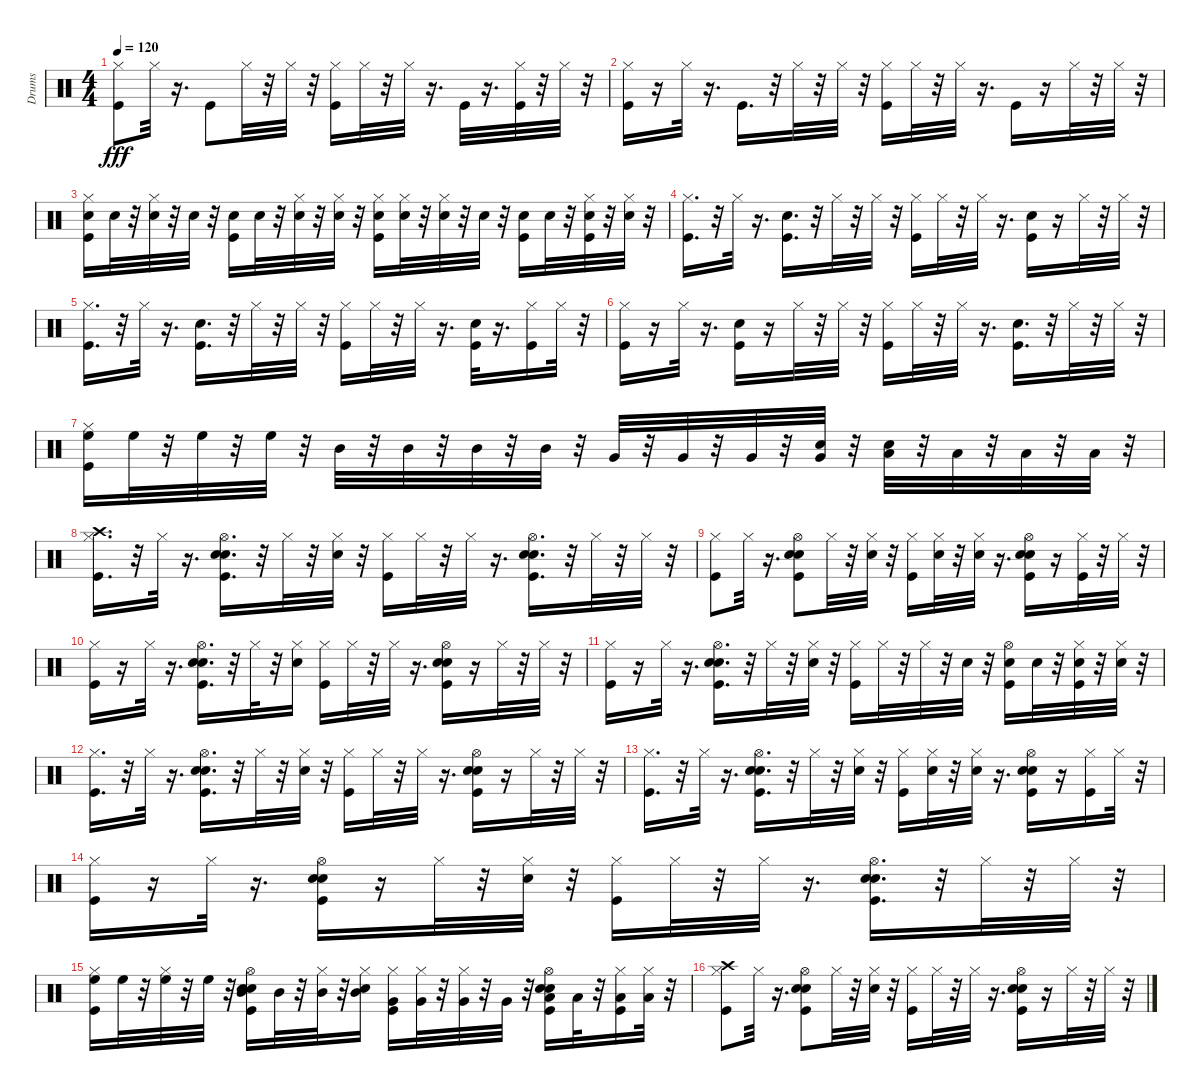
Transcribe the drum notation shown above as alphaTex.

\track ("Drums" "Drums") {instrument percussion}
\staff {score}
\articulation defaults
\ts (4 4)
\tempo 120
\clef neutral
\ks c
("Hi-Hat (closed)" "Kick (hit)").8{dy fff} "Hi-Hat (closed)".32 r.16{d} "Kick (hit)".8 "Hi-Hat (closed)".32 r.32 "Hi-Hat (closed)".32 r.32 ("Hi-Hat (closed)" "Kick (hit)").16 "Hi-Hat (closed)".32 r.32 "Hi-Hat (closed)".32 r.16{d} "Kick (hit)".32 r.16{d} ("Hi-Hat (closed)" "Kick (hit)").32 r.32 "Hi-Hat (closed)".32 r.32 |
("Hi-Hat (closed)" "Kick (hit)").16 r.16 "Hi-Hat (closed)".32 r.16{d} "Kick (hit)".16{d} r.32 "Hi-Hat (closed)".32 r.32 "Hi-Hat (closed)".32 r.32 ("Hi-Hat (closed)" "Kick (hit)").16 "Hi-Hat (closed)".32 r.32 "Hi-Hat (closed)".32 r.16{d} "Kick (hit)".16 r.16 "Hi-Hat (closed)".32 r.32 "Hi-Hat (closed)".32 r.32 |
("Hi-Hat (closed)" "Kick (hit)" "Electric Snare (hit)").16 "Electric Snare (hit)".32 r.32 ("Hi-Hat (closed)" "Electric Snare (hit)").32 r.32 "Electric Snare (hit)".32 r.32 ("Kick (hit)" "Electric Snare (hit)").16 "Electric Snare (hit)".32 r.32 ("Hi-Hat (closed)" "Electric Snare (hit)").32 r.32 ("Hi-Hat (closed)" "Electric Snare (hit)").32 r.32 ("Hi-Hat (closed)" "Kick (hit)" "Electric Snare (hit)").16 ("Hi-Hat (closed)" "Electric Snare (hit)").32 r.32 ("Hi-Hat (closed)" "Electric Snare (hit)").32 r.32 "Electric Snare (hit)".32 r.32 ("Kick (hit)" "Electric Snare (hit)").16 "Electric Snare (hit)".32 r.32 ("Hi-Hat (closed)" "Kick (hit)" "Electric Snare (hit)").32 r.32 ("Hi-Hat (closed)" "Electric Snare (hit)").32 r.32 |
("Hi-Hat (closed)" "Kick (hit)").16{d} r.32 "Hi-Hat (closed)".32 r.16{d} ("Kick (hit)" "Hand Clap (hit)").16{d} r.32 "Hi-Hat (closed)".32 r.32 "Hi-Hat (closed)".32 r.32 ("Hi-Hat (closed)" "Kick (hit)").16 "Hi-Hat (closed)".32 r.32 "Hi-Hat (closed)".32 r.16{d} ("Kick (hit)" "Hand Clap (hit)").16 r.16 "Hi-Hat (closed)".32 r.32 "Hi-Hat (closed)".32 r.32 |
("Hi-Hat (closed)" "Kick (hit)").16{d} r.32 "Hi-Hat (closed)".32 r.16{d} ("Kick (hit)" "Hand Clap (hit)").16{d} r.32 "Hi-Hat (closed)".32 r.32 "Hi-Hat (closed)".32 r.32 ("Hi-Hat (closed)" "Kick (hit)").16 "Hi-Hat (closed)".32 r.32 "Hi-Hat (closed)".32 r.16{d} ("Kick (hit)" "Hand Clap (hit)").32 r.16{d} ("Hi-Hat (closed)" "Kick (hit)").16 "Hi-Hat (closed)".32 r.32 |
("Hi-Hat (closed)" "Kick (hit)").16 r.16 "Hi-Hat (closed)".32 r.16{d} ("Kick (hit)" "Hand Clap (hit)").16 r.16 "Hi-Hat (closed)".32 r.32 "Hi-Hat (closed)".32 r.32 ("Hi-Hat (closed)" "Kick (hit)").16 "Hi-Hat (closed)".32 r.32 "Hi-Hat (closed)".32 r.16{d} ("Kick (hit)" "Hand Clap (hit)").16{d} r.32 "Hi-Hat (closed)".32 r.32 "Hi-Hat (closed)".32 r.32 |
("Hi-Hat (closed)" "Kick (hit)" "High Floor Tom (hit)").16 "High Floor Tom (hit)".32 r.32 "High Floor Tom (hit)".32 r.32 "High Floor Tom (hit)".32 r.32 "Mid Tom (hit)".32 r.32 "Mid Tom (hit)".32 r.32 "Mid Tom (hit)".32 r.32 "Mid Tom (hit)".32 r.32 "Very Low Tom (hit)".32 r.32 "Very Low Tom (hit)".32 r.32 "Very Low Tom (hit)".32 r.32 ("Very Low Tom (hit)" "Electric Snare (hit)").32 r.32 ("Low Floor Tom (hit)" "Electric Snare (hit)").32 r.32 "Low Floor Tom (hit)".32 r.32 "Low Floor Tom (hit)".32 r.32 "Low Floor Tom (hit)".32 r.32 |
("Hi-Hat (closed)" "Kick (hit)" "Crash high (hit)").16{d} r.32 "Hi-Hat (closed)".32 r.16{d} ("Hi-Hat (open)" "Kick (hit)" "Hand Clap (hit)" "Electric Snare (hit)").16{d} r.32 "Hi-Hat (closed)".32 r.32 ("Hi-Hat (closed)" "Electric Snare (hit)").32 r.32 ("Hi-Hat (closed)" "Kick (hit)").16 "Hi-Hat (closed)".32 r.32 "Hi-Hat (closed)".32 r.16{d} ("Hi-Hat (open)" "Kick (hit)" "Hand Clap (hit)" "Electric Snare (hit)").16{d} r.32 "Hi-Hat (closed)".32 r.32 "Hi-Hat (closed)".32 r.32 |
("Hi-Hat (closed)" "Kick (hit)").8 "Hi-Hat (closed)".32 r.16{d} ("Hi-Hat (open)" "Kick (hit)" "Hand Clap (hit)" "Electric Snare (hit)").8 "Hi-Hat (closed)".32 r.32 ("Hi-Hat (closed)" "Electric Snare (hit)").32 r.32 ("Hi-Hat (closed)" "Kick (hit)").16 ("Hi-Hat (closed)" "Electric Snare (hit)").32 r.32 ("Hi-Hat (closed)" "Electric Snare (hit)").32 r.16{d} ("Hi-Hat (open)" "Kick (hit)" "Hand Clap (hit)" "Electric Snare (hit)").16 r.16 ("Hi-Hat (closed)" "Kick (hit)").32 r.32 "Hi-Hat (closed)".32 r.32 |
("Hi-Hat (closed)" "Kick (hit)").16 r.16 "Hi-Hat (closed)".32 r.16{d} ("Hi-Hat (open)" "Kick (hit)" "Hand Clap (hit)" "Electric Snare (hit)").16{d} r.32 "Hi-Hat (closed)".32 r.32 ("Hi-Hat (closed)" "Electric Snare (hit)").16 ("Hi-Hat (closed)" "Kick (hit)").16 "Hi-Hat (closed)".32 r.32 "Hi-Hat (closed)".32 r.16{d} ("Hi-Hat (open)" "Kick (hit)" "Hand Clap (hit)" "Electric Snare (hit)").16 r.16 "Hi-Hat (closed)".32 r.32 "Hi-Hat (closed)".32 r.32 |
("Hi-Hat (closed)" "Kick (hit)").16 r.16 "Hi-Hat (closed)".32 r.16{d} ("Hi-Hat (open)" "Kick (hit)" "Hand Clap (hit)" "Electric Snare (hit)").16{d} r.32 "Hi-Hat (closed)".32 r.32 ("Hi-Hat (closed)" "Electric Snare (hit)").32 r.32 ("Hi-Hat (closed)" "Kick (hit)").16 "Hi-Hat (closed)".32 r.32 "Hi-Hat (closed)".32 r.32 "Electric Snare (hit)".32 r.32 ("Hi-Hat (open)" "Kick (hit)" "Hand Clap (hit)").16 "Electric Snare (hit)".32 r.32 ("Hi-Hat (closed)" "Kick (hit)" "Electric Snare (hit)").32 r.32 ("Hi-Hat (closed)" "Electric Snare (hit)").32 r.32 |
("Hi-Hat (closed)" "Kick (hit)").16{d} r.32 "Hi-Hat (closed)".32 r.16{d} ("Hi-Hat (open)" "Kick (hit)" "Hand Clap (hit)" "Electric Snare (hit)").16{d} r.32 "Hi-Hat (closed)".32 r.32 ("Hi-Hat (closed)" "Electric Snare (hit)").32 r.32 ("Hi-Hat (closed)" "Kick (hit)").16 "Hi-Hat (closed)".32 r.32 "Hi-Hat (closed)".32 r.16{d} ("Hi-Hat (open)" "Kick (hit)" "Hand Clap (hit)" "Electric Snare (hit)").16 r.16 "Hi-Hat (closed)".32 r.32 "Hi-Hat (closed)".32 r.32 |
("Hi-Hat (closed)" "Kick (hit)").16{d} r.32 "Hi-Hat (closed)".32 r.16{d} ("Hi-Hat (open)" "Kick (hit)" "Hand Clap (hit)" "Electric Snare (hit)").16{d} r.32 "Hi-Hat (closed)".32 r.32 ("Hi-Hat (closed)" "Electric Snare (hit)").32 r.32 ("Hi-Hat (closed)" "Kick (hit)").16 ("Hi-Hat (closed)" "Electric Snare (hit)").32 r.32 ("Hi-Hat (closed)" "Electric Snare (hit)").32 r.16{d} ("Hi-Hat (open)" "Kick (hit)" "Hand Clap (hit)" "Electric Snare (hit)").16 r.16 ("Hi-Hat (closed)" "Kick (hit)").16 "Hi-Hat (closed)".32 r.32 |
("Hi-Hat (closed)" "Kick (hit)").16 r.16 "Hi-Hat (closed)".32 r.16{d} ("Hi-Hat (open)" "Kick (hit)" "Hand Clap (hit)" "Electric Snare (hit)").16 r.16 "Hi-Hat (closed)".32 r.32 ("Hi-Hat (closed)" "Electric Snare (hit)").32 r.32 ("Hi-Hat (closed)" "Kick (hit)").16 "Hi-Hat (closed)".32 r.32 "Hi-Hat (closed)".32 r.16{d} ("Hi-Hat (open)" "Kick (hit)" "Hand Clap (hit)" "Electric Snare (hit)").16{d} r.32 "Hi-Hat (closed)".32 r.32 "Hi-Hat (closed)".32 r.32 |
("Hi-Hat (closed)" "Kick (hit)" "High Floor Tom (hit)").16 "High Floor Tom (hit)".32 r.32 ("Hi-Hat (closed)" "High Floor Tom (hit)").32 r.32 "High Floor Tom (hit)".32 r.32 ("Hi-Hat (open)" "Kick (hit)" "Mid Tom (hit)" "Hand Clap (hit)" "Electric Snare (hit)").16 "Mid Tom (hit)".32 r.32 ("Hi-Hat (closed)" "Mid Tom (hit)").32 r.32 ("Hi-Hat (closed)" "Electric Snare (hit)" "Mid Tom (hit)").16 ("Hi-Hat (closed)" "Kick (hit)" "Very Low Tom (hit)").16 ("Hi-Hat (closed)" "Very Low Tom (hit)").32 r.32 ("Hi-Hat (closed)" "Very Low Tom (hit)").32 r.32 "Very Low Tom (hit)".32 r.32 ("Low Floor Tom (hit)" "Kick (hit)" "Hi-Hat (open)" "Hand Clap (hit)" "Electric Snare (hit)").16 "Low Floor Tom (hit)".32 r.32 ("Low Floor Tom (hit)" "Kick (hit)" "Hi-Hat (closed)").16 ("Low Floor Tom (hit)" "Hi-Hat (closed)").32 r.32 |
("Hi-Hat (closed)" "Kick (hit)" "Crash high (hit)").8 "Hi-Hat (closed)".32 r.16{d} ("Hi-Hat (open)" "Kick (hit)" "Hand Clap (hit)" "Electric Snare (hit)").8 "Hi-Hat (closed)".32 r.32 ("Hi-Hat (closed)" "Electric Snare (hit)").32 r.32 ("Hi-Hat (closed)" "Kick (hit)").16 "Hi-Hat (closed)".32 r.32 "Hi-Hat (closed)".32 r.16{d} ("Hi-Hat (open)" "Kick (hit)" "Hand Clap (hit)" "Electric Snare (hit)").16 r.16 "Hi-Hat (closed)".32 r.32 "Hi-Hat (closed)".32 r.32
